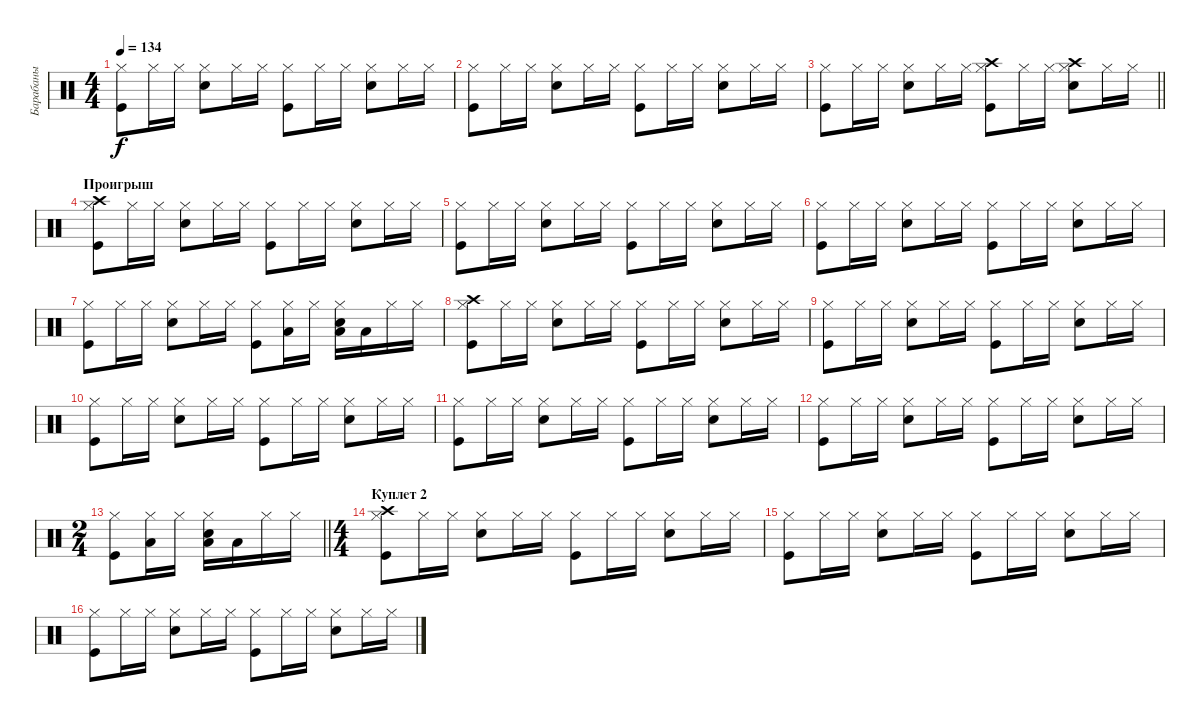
\track ("Барабаны" "Барабаны") {instrument percussion}
\staff {score}
\articulation defaults
\ts (4 4)
\tempo 134
\clef neutral
\ks c
("Kick (hit)" "Hi-Hat (closed)").8{dy f} "Hi-Hat (closed)".16 "Hi-Hat (closed)".16 ("Snare (hit) 2" "Hi-Hat (closed)").8 "Hi-Hat (closed)".16 "Hi-Hat (closed)".16 ("Kick (hit)" "Hi-Hat (closed)").8 "Hi-Hat (closed)".16 "Hi-Hat (closed)".16 ("Snare (hit) 2" "Hi-Hat (closed)").8 "Hi-Hat (closed)".16 "Hi-Hat (closed)".16 |
("Kick (hit)" "Hi-Hat (closed)").8 "Hi-Hat (closed)".16 "Hi-Hat (closed)".16 ("Snare (hit) 2" "Hi-Hat (closed)").8 "Hi-Hat (closed)".16 "Hi-Hat (closed)".16 ("Kick (hit)" "Hi-Hat (closed)").8 "Hi-Hat (closed)".16 "Hi-Hat (closed)".16 ("Snare (hit) 2" "Hi-Hat (closed)").8 "Hi-Hat (closed)".16 "Hi-Hat (closed)".16 |
\barLineRight lightlight
("Kick (hit)" "Hi-Hat (closed)").8 "Hi-Hat (closed)".16 "Hi-Hat (closed)".16 ("Snare (hit) 2" "Hi-Hat (closed)").8 "Hi-Hat (closed)".16 "Hi-Hat (closed)".16 ("Kick (hit)" "Hi-Hat (closed)" "Crash high (hit)").8 "Hi-Hat (closed)".16 "Hi-Hat (closed)".16 ("Snare (hit) 2" "Hi-Hat (closed)" "Crash high (hit)").8 "Hi-Hat (closed)".16 "Hi-Hat (closed)".16 |
\section ("" "Проигрыш")
("Kick (hit)" "Hi-Hat (closed)" "Crash high (hit)").8 "Hi-Hat (closed)".16 "Hi-Hat (closed)".16 ("Snare (hit) 2" "Hi-Hat (closed)").8 "Hi-Hat (closed)".16 "Hi-Hat (closed)".16 ("Kick (hit)" "Hi-Hat (closed)").8 "Hi-Hat (closed)".16 "Hi-Hat (closed)".16 ("Snare (hit) 2" "Hi-Hat (closed)").8 "Hi-Hat (closed)".16 "Hi-Hat (closed)".16 |
("Kick (hit)" "Hi-Hat (closed)").8 "Hi-Hat (closed)".16 "Hi-Hat (closed)".16 ("Snare (hit) 2" "Hi-Hat (closed)").8 "Hi-Hat (closed)".16 "Hi-Hat (closed)".16 ("Kick (hit)" "Hi-Hat (closed)").8 "Hi-Hat (closed)".16 "Hi-Hat (closed)".16 ("Snare (hit) 2" "Hi-Hat (closed)").8 "Hi-Hat (closed)".16 "Hi-Hat (closed)".16 |
("Kick (hit)" "Hi-Hat (closed)").8 "Hi-Hat (closed)".16 "Hi-Hat (closed)".16 ("Snare (hit) 2" "Hi-Hat (closed)").8 "Hi-Hat (closed)".16 "Hi-Hat (closed)".16 ("Kick (hit)" "Hi-Hat (closed)").8 "Hi-Hat (closed)".16 "Hi-Hat (closed)".16 ("Snare (hit) 2" "Hi-Hat (closed)").8 "Hi-Hat (closed)".16 "Hi-Hat (closed)".16 |
("Kick (hit)" "Hi-Hat (closed)").8 "Hi-Hat (closed)".16 "Hi-Hat (closed)".16 ("Snare (hit) 2" "Hi-Hat (closed)").8 "Hi-Hat (closed)".16 "Hi-Hat (closed)".16 ("Kick (hit)" "Hi-Hat (closed)").8 ("Hi-Hat (closed)" "Low Tom (hit)").16 "Hi-Hat (closed)".16 ("Snare (hit) 2" "Hi-Hat (closed)" "Low Tom (hit)").16 "Low Tom (hit)".16 "Hi-Hat (closed)".16 "Hi-Hat (closed)".16 |
("Kick (hit)" "Hi-Hat (closed)" "Crash high (hit)").8 "Hi-Hat (closed)".16 "Hi-Hat (closed)".16 ("Snare (hit) 2" "Hi-Hat (closed)").8 "Hi-Hat (closed)".16 "Hi-Hat (closed)".16 ("Kick (hit)" "Hi-Hat (closed)").8 "Hi-Hat (closed)".16 "Hi-Hat (closed)".16 ("Snare (hit) 2" "Hi-Hat (closed)").8 "Hi-Hat (closed)".16 "Hi-Hat (closed)".16 |
("Kick (hit)" "Hi-Hat (closed)").8 "Hi-Hat (closed)".16 "Hi-Hat (closed)".16 ("Snare (hit) 2" "Hi-Hat (closed)").8 "Hi-Hat (closed)".16 "Hi-Hat (closed)".16 ("Kick (hit)" "Hi-Hat (closed)").8 "Hi-Hat (closed)".16 "Hi-Hat (closed)".16 ("Snare (hit) 2" "Hi-Hat (closed)").8 "Hi-Hat (closed)".16 "Hi-Hat (closed)".16 |
("Kick (hit)" "Hi-Hat (closed)").8 "Hi-Hat (closed)".16 "Hi-Hat (closed)".16 ("Snare (hit) 2" "Hi-Hat (closed)").8 "Hi-Hat (closed)".16 "Hi-Hat (closed)".16 ("Kick (hit)" "Hi-Hat (closed)").8 "Hi-Hat (closed)".16 "Hi-Hat (closed)".16 ("Snare (hit) 2" "Hi-Hat (closed)").8 "Hi-Hat (closed)".16 "Hi-Hat (closed)".16 |
("Kick (hit)" "Hi-Hat (closed)").8 "Hi-Hat (closed)".16 "Hi-Hat (closed)".16 ("Snare (hit) 2" "Hi-Hat (closed)").8 "Hi-Hat (closed)".16 "Hi-Hat (closed)".16 ("Kick (hit)" "Hi-Hat (closed)").8 "Hi-Hat (closed)".16 "Hi-Hat (closed)".16 ("Snare (hit) 2" "Hi-Hat (closed)").8 "Hi-Hat (closed)".16 "Hi-Hat (closed)".16 |
("Kick (hit)" "Hi-Hat (closed)").8 "Hi-Hat (closed)".16 "Hi-Hat (closed)".16 ("Snare (hit) 2" "Hi-Hat (closed)").8 "Hi-Hat (closed)".16 "Hi-Hat (closed)".16 ("Kick (hit)" "Hi-Hat (closed)").8 "Hi-Hat (closed)".16 "Hi-Hat (closed)".16 ("Snare (hit) 2" "Hi-Hat (closed)").8 "Hi-Hat (closed)".16 "Hi-Hat (closed)".16 |
\ts (2 4)
\barLineRight lightlight
("Kick (hit)" "Hi-Hat (closed)").8 ("Hi-Hat (closed)" "Low Tom (hit)").16 "Hi-Hat (closed)".16 ("Snare (hit) 2" "Hi-Hat (closed)" "Low Tom (hit)").16 "Low Tom (hit)".16 "Hi-Hat (closed)".16 "Hi-Hat (closed)".16 |
\ts (4 4)
\section ("" "Куплет 2")
("Kick (hit)" "Hi-Hat (closed)" "Crash high (hit)").8 "Hi-Hat (closed)".16 "Hi-Hat (closed)".16 ("Snare (hit) 2" "Hi-Hat (closed)").8 "Hi-Hat (closed)".16 "Hi-Hat (closed)".16 ("Kick (hit)" "Hi-Hat (closed)").8 "Hi-Hat (closed)".16 "Hi-Hat (closed)".16 ("Snare (hit) 2" "Hi-Hat (closed)").8 "Hi-Hat (closed)".16 "Hi-Hat (closed)".16 |
("Kick (hit)" "Hi-Hat (closed)").8 "Hi-Hat (closed)".16 "Hi-Hat (closed)".16 ("Snare (hit) 2" "Hi-Hat (closed)").8 "Hi-Hat (closed)".16 "Hi-Hat (closed)".16 ("Kick (hit)" "Hi-Hat (closed)").8 "Hi-Hat (closed)".16 "Hi-Hat (closed)".16 ("Snare (hit) 2" "Hi-Hat (closed)").8 "Hi-Hat (closed)".16 "Hi-Hat (closed)".16 |
("Kick (hit)" "Hi-Hat (closed)").8 "Hi-Hat (closed)".16 "Hi-Hat (closed)".16 ("Snare (hit) 2" "Hi-Hat (closed)").8 "Hi-Hat (closed)".16 "Hi-Hat (closed)".16 ("Kick (hit)" "Hi-Hat (closed)").8 "Hi-Hat (closed)".16 "Hi-Hat (closed)".16 ("Snare (hit) 2" "Hi-Hat (closed)").8 "Hi-Hat (closed)".16 "Hi-Hat (closed)".16
